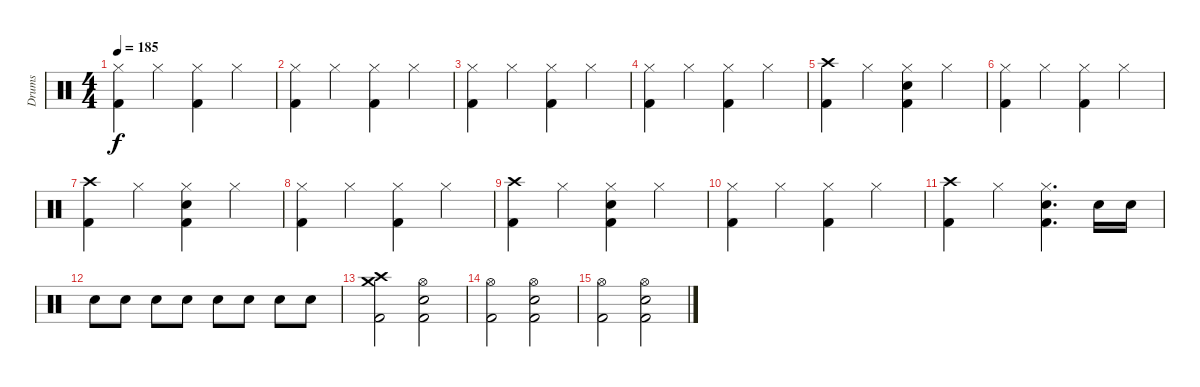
\track ("Drums" "Drums") {instrument percussion}
\staff {score}
\articulation defaults
\ts (4 4)
\tempo 185
\clef neutral
\ks c
("Hi-Hat (closed)" "Kick (hit) 2").4{dy f} "Hi-Hat (closed)".4 ("Hi-Hat (closed)" "Kick (hit) 2").4 "Hi-Hat (closed)".4 |
("Hi-Hat (closed)" "Kick (hit) 2").4 "Hi-Hat (closed)".4 ("Hi-Hat (closed)" "Kick (hit) 2").4 "Hi-Hat (closed)".4 |
("Hi-Hat (closed)" "Kick (hit) 2").4 "Hi-Hat (closed)".4 ("Hi-Hat (closed)" "Kick (hit) 2").4 "Hi-Hat (closed)".4 |
("Hi-Hat (closed)" "Kick (hit) 2").4 "Hi-Hat (closed)".4 ("Hi-Hat (closed)" "Kick (hit) 2").4 "Hi-Hat (closed)".4 |
("Crash high (hit)" "Kick (hit) 2").4 "Hi-Hat (closed)".4 ("Hi-Hat (closed)" "Electric Snare (hit)" "Kick (hit) 2").4 "Hi-Hat (closed)".4 |
("Hi-Hat (closed)" "Kick (hit) 2").4 "Hi-Hat (closed)".4 ("Hi-Hat (closed)" "Kick (hit) 2").4 "Hi-Hat (closed)".4 |
("Crash high (hit)" "Kick (hit) 2").4 "Hi-Hat (closed)".4 ("Hi-Hat (closed)" "Electric Snare (hit)" "Kick (hit) 2").4 "Hi-Hat (closed)".4 |
("Hi-Hat (closed)" "Kick (hit) 2").4 "Hi-Hat (closed)".4 ("Hi-Hat (closed)" "Kick (hit) 2").4 "Hi-Hat (closed)".4 |
("Crash high (hit)" "Kick (hit) 2").4 "Hi-Hat (closed)".4 ("Hi-Hat (closed)" "Electric Snare (hit)" "Kick (hit) 2").4 "Hi-Hat (closed)".4 |
("Hi-Hat (closed)" "Kick (hit) 2").4 "Hi-Hat (closed)".4 ("Hi-Hat (closed)" "Kick (hit) 2").4 "Hi-Hat (closed)".4 |
("Crash high (hit)" "Kick (hit) 2").4 "Hi-Hat (closed)".4 ("Hi-Hat (closed)" "Electric Snare (hit)" "Kick (hit) 2").4{d} "Electric Snare (hit)".16 "Electric Snare (hit)".16 |
"Electric Snare (hit)".8 "Electric Snare (hit)".8 "Electric Snare (hit)".8 "Electric Snare (hit)".8 "Electric Snare (hit)".8 "Electric Snare (hit)".8 "Electric Snare (hit)".8 "Electric Snare (hit)".8 |
("Crash high (hit)" "Crash medium (hit)" "Kick (hit) 2").2 ("Hi-Hat (open)" "Electric Snare (hit)" "Kick (hit) 2").2 |
("Hi-Hat (open)" "Kick (hit) 2").2 ("Hi-Hat (open)" "Electric Snare (hit)" "Kick (hit) 2").2 |
("Hi-Hat (open)" "Kick (hit) 2").2 ("Hi-Hat (open)" "Electric Snare (hit)" "Kick (hit) 2").2
